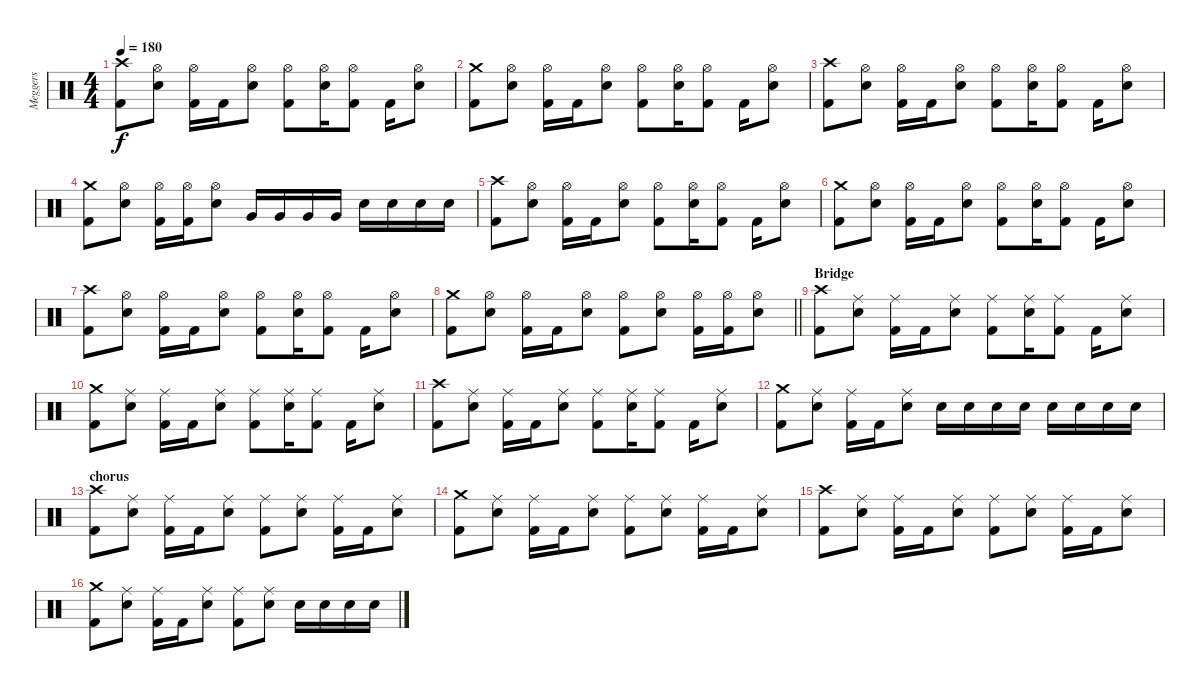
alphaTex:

\track ("Meggers" "Meggers") {instrument percussion}
\staff {score}
\articulation defaults
\ts (4 4)
\tempo 180
\clef neutral
\ks c
("Crash high (hit)" "Kick (hit) 2").8{dy f} ("Hi-Hat (open)" "Snare (hit) 2").8 ("Hi-Hat (open)" "Kick (hit) 2").16 "Kick (hit) 2".16 ("Hi-Hat (open)" "Snare (hit) 2").8 ("Hi-Hat (open)" "Kick (hit) 2").8 ("Hi-Hat (open)" "Snare (hit) 2").16 ("Hi-Hat (open)" "Kick (hit) 2").8 "Kick (hit) 2".16 ("Hi-Hat (open)" "Snare (hit) 2").8 |
("Crash medium (hit)" "Kick (hit) 2").8 ("Hi-Hat (open)" "Snare (hit) 2").8 ("Hi-Hat (open)" "Kick (hit) 2").16 "Kick (hit) 2".16 ("Hi-Hat (open)" "Snare (hit) 2").8 ("Hi-Hat (open)" "Kick (hit) 2").8 ("Hi-Hat (open)" "Snare (hit) 2").16 ("Hi-Hat (open)" "Kick (hit) 2").8 "Kick (hit) 2".16 ("Hi-Hat (open)" "Snare (hit) 2").8 |
("Crash high (hit)" "Kick (hit) 2").8 ("Hi-Hat (open)" "Snare (hit) 2").8 ("Hi-Hat (open)" "Kick (hit) 2").16 "Kick (hit) 2".16 ("Hi-Hat (open)" "Snare (hit) 2").8 ("Hi-Hat (open)" "Kick (hit) 2").8 ("Hi-Hat (open)" "Snare (hit) 2").16 ("Hi-Hat (open)" "Kick (hit) 2").8 "Kick (hit) 2".16 ("Hi-Hat (open)" "Snare (hit) 2").8 |
("Crash medium (hit)" "Kick (hit) 2").8 ("Hi-Hat (open)" "Snare (hit) 2").8 ("Hi-Hat (open)" "Kick (hit) 2").16 ("Hi-Hat (open)" "Kick (hit) 2").16 ("Hi-Hat (open)" "Snare (hit) 2").8 "Very Low Tom (hit)".16 "Very Low Tom (hit)".16 "Very Low Tom (hit)".16 "Very Low Tom (hit)".16 "Snare (hit) 2".16 "Snare (hit) 2".16 "Snare (hit) 2".16 "Snare (hit) 2".16 |
("Crash high (hit)" "Kick (hit) 2").8 ("Hi-Hat (open)" "Snare (hit) 2").8 ("Hi-Hat (open)" "Kick (hit) 2").16 "Kick (hit) 2".16 ("Hi-Hat (open)" "Snare (hit) 2").8 ("Hi-Hat (open)" "Kick (hit) 2").8 ("Hi-Hat (open)" "Snare (hit) 2").16 ("Hi-Hat (open)" "Kick (hit) 2").8 "Kick (hit) 2".16 ("Hi-Hat (open)" "Snare (hit) 2").8 |
("Crash medium (hit)" "Kick (hit) 2").8 ("Hi-Hat (open)" "Snare (hit) 2").8 ("Hi-Hat (open)" "Kick (hit) 2").16 "Kick (hit) 2".16 ("Hi-Hat (open)" "Snare (hit) 2").8 ("Hi-Hat (open)" "Kick (hit) 2").8 ("Hi-Hat (open)" "Snare (hit) 2").16 ("Hi-Hat (open)" "Kick (hit) 2").8 "Kick (hit) 2".16 ("Hi-Hat (open)" "Snare (hit) 2").8 |
("Crash high (hit)" "Kick (hit) 2").8 ("Hi-Hat (open)" "Snare (hit) 2").8 ("Hi-Hat (open)" "Kick (hit) 2").16 "Kick (hit) 2".16 ("Hi-Hat (open)" "Snare (hit) 2").8 ("Hi-Hat (open)" "Kick (hit) 2").8 ("Hi-Hat (open)" "Snare (hit) 2").16 ("Hi-Hat (open)" "Kick (hit) 2").8 "Kick (hit) 2".16 ("Hi-Hat (open)" "Snare (hit) 2").8 |
\barLineRight lightlight
("Crash medium (hit)" "Kick (hit) 2").8 ("Hi-Hat (open)" "Snare (hit) 2").8 ("Hi-Hat (open)" "Kick (hit) 2").16 "Kick (hit) 2".16 ("Hi-Hat (open)" "Snare (hit) 2").8 ("Hi-Hat (open)" "Kick (hit) 2").8 ("Hi-Hat (open)" "Snare (hit) 2").8 ("Hi-Hat (open)" "Kick (hit) 2").16 ("Hi-Hat (open)" "Kick (hit) 2").16 ("Hi-Hat (open)" "Snare (hit) 2").8 |
\section ("" "Bridge")
("Crash high (hit)" "Kick (hit) 2").8 ("Ride (middle)" "Snare (hit) 2").8 ("Ride (middle)" "Kick (hit) 2").16 "Kick (hit) 2".16 ("Ride (middle)" "Snare (hit) 2").8 ("Ride (middle)" "Kick (hit) 2").8 ("Ride (middle)" "Snare (hit) 2").16 ("Ride (middle)" "Kick (hit) 2").8 "Kick (hit) 2".16 ("Ride (middle)" "Snare (hit) 2").8 |
("Crash medium (hit)" "Kick (hit) 2").8 ("Ride (middle)" "Snare (hit) 2").8 ("Ride (middle)" "Kick (hit) 2").16 "Kick (hit) 2".16 ("Ride (middle)" "Snare (hit) 2").8 ("Ride (middle)" "Kick (hit) 2").8 ("Ride (middle)" "Snare (hit) 2").16 ("Ride (middle)" "Kick (hit) 2").8 "Kick (hit) 2".16 ("Ride (middle)" "Snare (hit) 2").8 |
("Crash high (hit)" "Kick (hit) 2").8 ("Ride (middle)" "Snare (hit) 2").8 ("Ride (middle)" "Kick (hit) 2").16 "Kick (hit) 2".16 ("Ride (middle)" "Snare (hit) 2").8 ("Ride (middle)" "Kick (hit) 2").8 ("Ride (middle)" "Snare (hit) 2").16 ("Ride (middle)" "Kick (hit) 2").8 "Kick (hit) 2".16 ("Ride (middle)" "Snare (hit) 2").8 |
("Crash medium (hit)" "Kick (hit) 2").8 ("Ride (middle)" "Snare (hit) 2").8 ("Ride (middle)" "Kick (hit) 2").16 "Kick (hit) 2".16 ("Ride (middle)" "Snare (hit) 2").8 "Snare (hit) 2".16 "Snare (hit) 2".16 "Snare (hit) 2".16 "Snare (hit) 2".16 "Snare (hit) 2".16 "Snare (hit) 2".16 "Snare (hit) 2".16 "Snare (hit) 2".16 |
\section ("" "chorus")
("Crash high (hit)" "Kick (hit) 2").8 ("Ride (middle)" "Snare (hit) 2").8 ("Ride (middle)" "Kick (hit) 2").16 "Kick (hit) 2".16 ("Ride (middle)" "Snare (hit) 2").8 ("Ride (middle)" "Kick (hit) 2").8 ("Ride (middle)" "Snare (hit) 2").8 ("Ride (middle)" "Kick (hit) 2").16 "Kick (hit) 2".16 ("Ride (middle)" "Snare (hit) 2").8 |
("Crash medium (hit)" "Kick (hit) 2").8 ("Ride (middle)" "Snare (hit) 2").8 ("Ride (middle)" "Kick (hit) 2").16 "Kick (hit) 2".16 ("Ride (middle)" "Snare (hit) 2").8 ("Ride (middle)" "Kick (hit) 2").8 ("Ride (middle)" "Snare (hit) 2").8 ("Ride (middle)" "Kick (hit) 2").16 "Kick (hit) 2".16 ("Ride (middle)" "Snare (hit) 2").8 |
("Crash high (hit)" "Kick (hit) 2").8 ("Ride (middle)" "Snare (hit) 2").8 ("Ride (middle)" "Kick (hit) 2").16 "Kick (hit) 2".16 ("Ride (middle)" "Snare (hit) 2").8 ("Ride (middle)" "Kick (hit) 2").8 ("Ride (middle)" "Snare (hit) 2").8 ("Ride (middle)" "Kick (hit) 2").16 "Kick (hit) 2".16 ("Ride (middle)" "Snare (hit) 2").8 |
("Crash medium (hit)" "Kick (hit) 2").8 ("Ride (middle)" "Snare (hit) 2").8 ("Ride (middle)" "Kick (hit) 2").16 "Kick (hit) 2".16 ("Ride (middle)" "Snare (hit) 2").8 ("Ride (middle)" "Kick (hit) 2").8 ("Ride (middle)" "Snare (hit) 2").8 "Snare (hit) 2".16 "Snare (hit) 2".16 "Snare (hit) 2".16 "Snare (hit) 2".16
